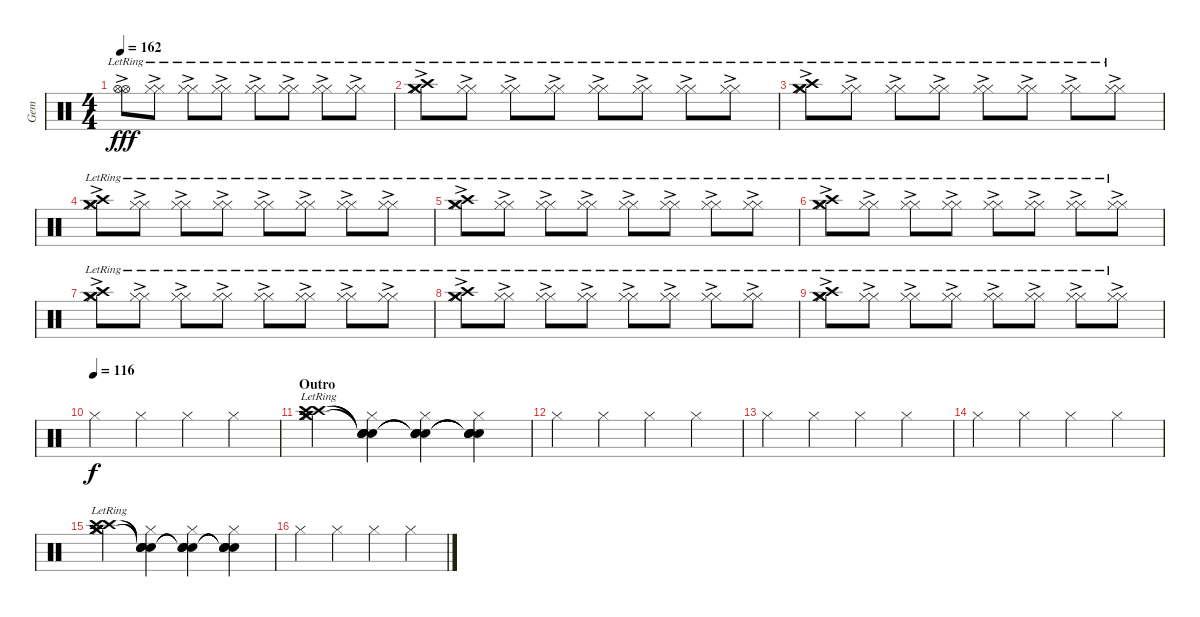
\track ("Gem" "Gem") {instrument percussion}
\staff {score}
\articulation defaults
\ts (4 4)
\tempo 162
\clef neutral
\ks c
("Hi-Hat (open)"{ac lr} "Hi-Hat (open)"{lr}).8{dy fff} ("Hi-Hat (closed)"{ac lr} "Hi-Hat (closed)"{lr}).8 ("Hi-Hat (closed)"{ac lr} "Hi-Hat (closed)"{lr}).8 ("Hi-Hat (closed)"{ac lr} "Hi-Hat (closed)"{lr}).8 ("Hi-Hat (closed)"{ac lr} "Hi-Hat (closed)"{lr}).8 ("Hi-Hat (closed)"{ac lr} "Hi-Hat (closed)"{lr}).8 ("Hi-Hat (closed)"{ac lr} "Hi-Hat (closed)"{lr}).8 ("Hi-Hat (closed)"{ac lr} "Hi-Hat (closed)"{lr}).8 |
("Hi-Hat (closed)"{ac lr} "Hi-Hat (closed)"{lr} "Crash high (hit)"{lr} "Crash medium (hit)"{lr}).8 ("Hi-Hat (closed)"{ac lr} "Hi-Hat (closed)"{lr}).8 ("Hi-Hat (closed)"{ac lr} "Hi-Hat (closed)"{lr}).8 ("Hi-Hat (closed)"{ac lr} "Hi-Hat (closed)"{lr}).8 ("Hi-Hat (closed)"{ac lr} "Hi-Hat (closed)"{lr}).8 ("Hi-Hat (closed)"{ac lr} "Hi-Hat (closed)"{lr}).8 ("Hi-Hat (closed)"{ac lr} "Hi-Hat (closed)"{lr}).8 ("Hi-Hat (closed)"{ac lr} "Hi-Hat (closed)"{lr}).8 |
("Hi-Hat (closed)"{ac lr} "Hi-Hat (closed)"{lr} "Crash high (hit)"{lr} "Crash medium (hit)"{lr}).8 ("Hi-Hat (closed)"{ac lr} "Hi-Hat (closed)"{lr}).8 ("Hi-Hat (closed)"{ac lr} "Hi-Hat (closed)"{lr}).8 ("Hi-Hat (closed)"{ac lr} "Hi-Hat (closed)"{lr}).8 ("Hi-Hat (closed)"{ac lr} "Hi-Hat (closed)"{lr}).8 ("Hi-Hat (closed)"{ac lr} "Hi-Hat (closed)"{lr}).8 ("Hi-Hat (closed)"{ac lr} "Hi-Hat (closed)"{lr}).8 ("Hi-Hat (closed)"{ac lr} "Hi-Hat (closed)"{lr}).8 |
("Hi-Hat (closed)"{ac lr} "Hi-Hat (closed)"{lr} "Crash high (hit)"{lr} "Crash medium (hit)"{lr}).8 ("Hi-Hat (closed)"{ac lr} "Hi-Hat (closed)"{lr}).8 ("Hi-Hat (closed)"{ac lr} "Hi-Hat (closed)"{lr}).8 ("Hi-Hat (closed)"{ac lr} "Hi-Hat (closed)"{lr}).8 ("Hi-Hat (closed)"{ac lr} "Hi-Hat (closed)"{lr}).8 ("Hi-Hat (closed)"{ac lr} "Hi-Hat (closed)"{lr}).8 ("Hi-Hat (closed)"{ac lr} "Hi-Hat (closed)"{lr}).8 ("Hi-Hat (closed)"{ac lr} "Hi-Hat (closed)"{lr}).8 |
("Hi-Hat (closed)"{ac lr} "Hi-Hat (closed)"{lr} "Crash high (hit)"{lr} "Crash medium (hit)"{lr}).8 ("Hi-Hat (closed)"{ac lr} "Hi-Hat (closed)"{lr}).8 ("Hi-Hat (closed)"{ac lr} "Hi-Hat (closed)"{lr}).8 ("Hi-Hat (closed)"{ac lr} "Hi-Hat (closed)"{lr}).8 ("Hi-Hat (closed)"{ac lr} "Hi-Hat (closed)"{lr}).8 ("Hi-Hat (closed)"{ac lr} "Hi-Hat (closed)"{lr}).8 ("Hi-Hat (closed)"{ac lr} "Hi-Hat (closed)"{lr}).8 ("Hi-Hat (closed)"{ac lr} "Hi-Hat (closed)"{lr}).8 |
("Hi-Hat (closed)"{ac lr} "Hi-Hat (closed)"{lr} "Crash high (hit)"{lr} "Crash medium (hit)"{lr}).8 ("Hi-Hat (closed)"{ac lr} "Hi-Hat (closed)"{lr}).8 ("Hi-Hat (closed)"{ac lr} "Hi-Hat (closed)"{lr}).8 ("Hi-Hat (closed)"{ac lr} "Hi-Hat (closed)"{lr}).8 ("Hi-Hat (closed)"{ac lr} "Hi-Hat (closed)"{lr}).8 ("Hi-Hat (closed)"{ac lr} "Hi-Hat (closed)"{lr}).8 ("Hi-Hat (closed)"{ac lr} "Hi-Hat (closed)"{lr}).8 ("Hi-Hat (closed)"{ac lr} "Hi-Hat (closed)"{lr}).8 |
("Hi-Hat (closed)"{ac lr} "Hi-Hat (closed)"{lr} "Crash high (hit)"{lr} "Crash medium (hit)"{lr}).8 ("Hi-Hat (closed)"{ac lr} "Hi-Hat (closed)"{lr}).8 ("Hi-Hat (closed)"{ac lr} "Hi-Hat (closed)"{lr}).8 ("Hi-Hat (closed)"{ac lr} "Hi-Hat (closed)"{lr}).8 ("Hi-Hat (closed)"{ac lr} "Hi-Hat (closed)"{lr}).8 ("Hi-Hat (closed)"{ac lr} "Hi-Hat (closed)"{lr}).8 ("Hi-Hat (closed)"{ac lr} "Hi-Hat (closed)"{lr}).8 ("Hi-Hat (closed)"{ac lr} "Hi-Hat (closed)"{lr}).8 |
("Hi-Hat (closed)"{ac lr} "Hi-Hat (closed)"{lr} "Crash high (hit)"{lr} "Crash medium (hit)"{lr}).8 ("Hi-Hat (closed)"{ac lr} "Hi-Hat (closed)"{lr}).8 ("Hi-Hat (closed)"{ac lr} "Hi-Hat (closed)"{lr}).8 ("Hi-Hat (closed)"{ac lr} "Hi-Hat (closed)"{lr}).8 ("Hi-Hat (closed)"{ac lr} "Hi-Hat (closed)"{lr}).8 ("Hi-Hat (closed)"{ac lr} "Hi-Hat (closed)"{lr}).8 ("Hi-Hat (closed)"{ac lr} "Hi-Hat (closed)"{lr}).8 ("Hi-Hat (closed)"{ac lr} "Hi-Hat (closed)"{lr}).8 |
("Hi-Hat (closed)"{ac lr} "Hi-Hat (closed)"{lr} "Crash high (hit)"{lr} "Crash medium (hit)"{lr}).8 ("Hi-Hat (closed)"{ac lr} "Hi-Hat (closed)"{lr}).8 ("Hi-Hat (closed)"{ac lr} "Hi-Hat (closed)"{lr}).8 ("Hi-Hat (closed)"{ac lr} "Hi-Hat (closed)"{lr}).8 ("Hi-Hat (closed)"{ac lr} "Hi-Hat (closed)"{lr}).8 ("Hi-Hat (closed)"{ac lr} "Hi-Hat (closed)"{lr}).8 ("Hi-Hat (closed)"{ac lr} "Hi-Hat (closed)"{lr}).8 ("Hi-Hat (closed)"{ac lr} "Hi-Hat (closed)"{lr}).8 |
\tempo (116)
"Hi-Hat (closed)".4{dy f} "Hi-Hat (closed)".4 "Hi-Hat (closed)".4 "Hi-Hat (closed)".4 |
\section ("" "Outro")
("Hi-Hat (closed)" "Crash high (hit)"{lr} "Crash medium (hit)"{lr} "Crash high (hit)"{lr} "Crash medium (hit)"{lr}).4 ("Hi-Hat (closed)" "Snare (hit)"{t} "Snare (hit)"{t} "Snare (hit)"{t} "Snare (hit)"{t}).4 ("Hi-Hat (closed)" "Snare (hit)"{t} "Snare (hit)"{t} "Snare (hit)"{t} "Snare (hit)"{t}).4 ("Hi-Hat (closed)" "Snare (hit)"{t} "Snare (hit)"{t} "Snare (hit)"{t} "Snare (hit)"{t}).4 |
"Hi-Hat (closed)".4 "Hi-Hat (closed)".4 "Hi-Hat (closed)".4 "Hi-Hat (closed)".4 |
"Hi-Hat (closed)".4 "Hi-Hat (closed)".4 "Hi-Hat (closed)".4 "Hi-Hat (closed)".4 |
"Hi-Hat (closed)".4 "Hi-Hat (closed)".4 "Hi-Hat (closed)".4 "Hi-Hat (closed)".4 |
("Hi-Hat (closed)" "Crash high (hit)"{lr} "Crash medium (hit)"{lr} "Crash high (hit)"{lr} "Crash medium (hit)"{lr}).4 ("Hi-Hat (closed)" "Snare (hit)"{t} "Snare (hit)"{t} "Snare (hit)"{t} "Snare (hit)"{t}).4 ("Hi-Hat (closed)" "Snare (hit)"{t} "Snare (hit)"{t} "Snare (hit)"{t} "Snare (hit)"{t}).4 ("Hi-Hat (closed)" "Snare (hit)"{t} "Snare (hit)"{t} "Snare (hit)"{t} "Snare (hit)"{t}).4 |
"Hi-Hat (closed)".4 "Hi-Hat (closed)".4 "Hi-Hat (closed)".4 "Hi-Hat (closed)".4
